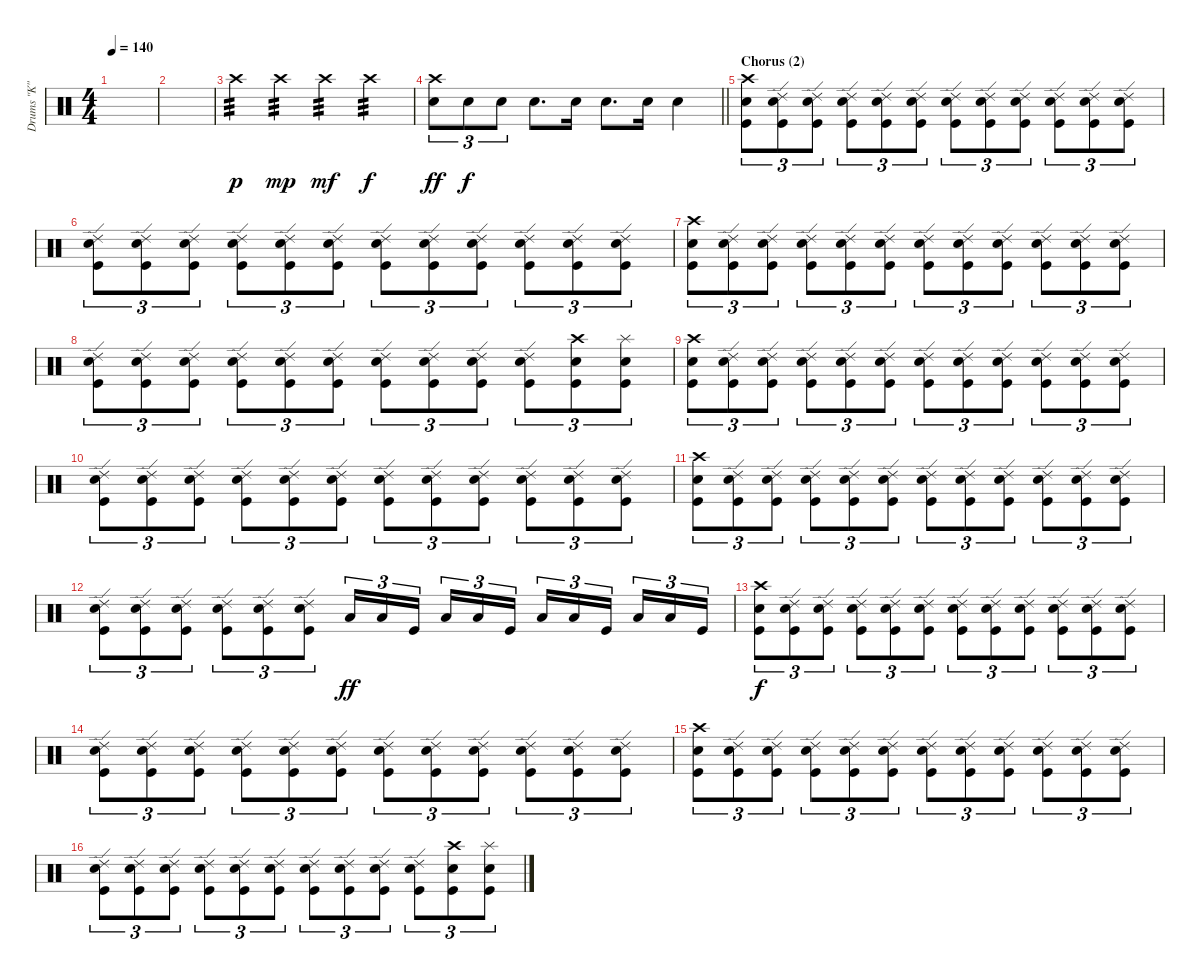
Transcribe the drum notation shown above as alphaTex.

\track ("Drums \"K\"" "Drums \"K\"") {instrument percussion}
\staff {score}
\articulation defaults
\ts (4 4)
\tempo 140
\clef neutral
\ks c
|
|
"Crash high (hit)".4{tp 3 dy p} "Crash high (hit)".4{tp 3 dy mp} "Crash high (hit)".4{tp 3 dy mf} "Crash high (hit)".4{tp 3 dy f} |
\barLineRight lightlight
("Crash high (hit)" "Snare (hit) 2").8{tu (3 2) dy ff} "Snare (hit) 2".8{tu (3 2) dy f} "Snare (hit) 2".8{tu (3 2)} "Snare (hit) 2".8{d} "Snare (hit) 2".16 "Snare (hit) 2".8{d} "Snare (hit) 2".16 "Snare (hit) 2".4 |
\section ("" "Chorus (2)")
("Crash high (hit)" "Snare (hit) 2" "Kick (hit)").8{tu (3 2)} ("Ride (edge) 2" "Snare (hit) 2" "Kick (hit)").8{tu (3 2)} ("Ride (edge) 2" "Snare (hit) 2" "Kick (hit)").8{tu (3 2)} ("Ride (edge) 2" "Snare (hit) 2" "Kick (hit)").8{tu (3 2)} ("Ride (edge) 2" "Snare (hit) 2" "Kick (hit)").8{tu (3 2)} ("Ride (edge) 2" "Snare (hit) 2" "Kick (hit)").8{tu (3 2)} ("Ride (edge) 2" "Snare (hit) 2" "Kick (hit)").8{tu (3 2)} ("Ride (edge) 2" "Snare (hit) 2" "Kick (hit)").8{tu (3 2)} ("Ride (edge) 2" "Snare (hit) 2" "Kick (hit)").8{tu (3 2)} ("Ride (edge) 2" "Snare (hit) 2" "Kick (hit)").8{tu (3 2)} ("Ride (edge) 2" "Snare (hit) 2" "Kick (hit)").8{tu (3 2)} ("Ride (edge) 2" "Snare (hit) 2" "Kick (hit)").8{tu (3 2)} |
("Ride (edge) 2" "Snare (hit) 2" "Kick (hit)").8{tu (3 2)} ("Ride (edge) 2" "Snare (hit) 2" "Kick (hit)").8{tu (3 2)} ("Ride (edge) 2" "Snare (hit) 2" "Kick (hit)").8{tu (3 2)} ("Ride (edge) 2" "Snare (hit) 2" "Kick (hit)").8{tu (3 2)} ("Ride (edge) 2" "Snare (hit) 2" "Kick (hit)").8{tu (3 2)} ("Ride (edge) 2" "Snare (hit) 2" "Kick (hit)").8{tu (3 2)} ("Ride (edge) 2" "Snare (hit) 2" "Kick (hit)").8{tu (3 2)} ("Ride (edge) 2" "Snare (hit) 2" "Kick (hit)").8{tu (3 2)} ("Ride (edge) 2" "Snare (hit) 2" "Kick (hit)").8{tu (3 2)} ("Ride (edge) 2" "Snare (hit) 2" "Kick (hit)").8{tu (3 2)} ("Ride (edge) 2" "Snare (hit) 2" "Kick (hit)").8{tu (3 2)} ("Ride (edge) 2" "Snare (hit) 2" "Kick (hit)").8{tu (3 2)} |
("Crash high (hit)" "Snare (hit) 2" "Kick (hit)").8{tu (3 2)} ("Ride (edge) 2" "Snare (hit) 2" "Kick (hit)").8{tu (3 2)} ("Ride (edge) 2" "Snare (hit) 2" "Kick (hit)").8{tu (3 2)} ("Ride (edge) 2" "Snare (hit) 2" "Kick (hit)").8{tu (3 2)} ("Ride (edge) 2" "Snare (hit) 2" "Kick (hit)").8{tu (3 2)} ("Ride (edge) 2" "Snare (hit) 2" "Kick (hit)").8{tu (3 2)} ("Ride (edge) 2" "Snare (hit) 2" "Kick (hit)").8{tu (3 2)} ("Ride (edge) 2" "Snare (hit) 2" "Kick (hit)").8{tu (3 2)} ("Ride (edge) 2" "Snare (hit) 2" "Kick (hit)").8{tu (3 2)} ("Ride (edge) 2" "Snare (hit) 2" "Kick (hit)").8{tu (3 2)} ("Ride (edge) 2" "Snare (hit) 2" "Kick (hit)").8{tu (3 2)} ("Ride (edge) 2" "Snare (hit) 2" "Kick (hit)").8{tu (3 2)} |
("Ride (edge) 2" "Snare (hit) 2" "Kick (hit)").8{tu (3 2)} ("Ride (edge) 2" "Snare (hit) 2" "Kick (hit)").8{tu (3 2)} ("Ride (edge) 2" "Snare (hit) 2" "Kick (hit)").8{tu (3 2)} ("Ride (edge) 2" "Snare (hit) 2" "Kick (hit)").8{tu (3 2)} ("Ride (edge) 2" "Snare (hit) 2" "Kick (hit)").8{tu (3 2)} ("Ride (edge) 2" "Snare (hit) 2" "Kick (hit)").8{tu (3 2)} ("Ride (edge) 2" "Snare (hit) 2" "Kick (hit)").8{tu (3 2)} ("Ride (edge) 2" "Snare (hit) 2" "Kick (hit)").8{tu (3 2)} ("Ride (edge) 2" "Snare (hit) 2" "Kick (hit)").8{tu (3 2)} ("Ride (edge) 2" "Snare (hit) 2" "Kick (hit)").8{tu (3 2)} ("Crash high (hit)" "Snare (hit) 2" "Kick (hit)").8{tu (3 2)} ("Splash (hit)" "Snare (hit) 2" "Kick (hit)").8{tu (3 2)} |
("Crash high (hit)" "Snare (hit) 2" "Kick (hit)").8{tu (3 2)} ("Ride (edge) 2" "Snare (hit) 2" "Kick (hit)").8{tu (3 2)} ("Ride (edge) 2" "Snare (hit) 2" "Kick (hit)").8{tu (3 2)} ("Ride (edge) 2" "Snare (hit) 2" "Kick (hit)").8{tu (3 2)} ("Ride (edge) 2" "Snare (hit) 2" "Kick (hit)").8{tu (3 2)} ("Ride (edge) 2" "Snare (hit) 2" "Kick (hit)").8{tu (3 2)} ("Ride (edge) 2" "Snare (hit) 2" "Kick (hit)").8{tu (3 2)} ("Ride (edge) 2" "Snare (hit) 2" "Kick (hit)").8{tu (3 2)} ("Ride (edge) 2" "Snare (hit) 2" "Kick (hit)").8{tu (3 2)} ("Ride (edge) 2" "Snare (hit) 2" "Kick (hit)").8{tu (3 2)} ("Ride (edge) 2" "Snare (hit) 2" "Kick (hit)").8{tu (3 2)} ("Ride (edge) 2" "Snare (hit) 2" "Kick (hit)").8{tu (3 2)} |
("Ride (edge) 2" "Snare (hit) 2" "Kick (hit)").8{tu (3 2)} ("Ride (edge) 2" "Snare (hit) 2" "Kick (hit)").8{tu (3 2)} ("Ride (edge) 2" "Snare (hit) 2" "Kick (hit)").8{tu (3 2)} ("Ride (edge) 2" "Snare (hit) 2" "Kick (hit)").8{tu (3 2)} ("Ride (edge) 2" "Snare (hit) 2" "Kick (hit)").8{tu (3 2)} ("Ride (edge) 2" "Snare (hit) 2" "Kick (hit)").8{tu (3 2)} ("Ride (edge) 2" "Snare (hit) 2" "Kick (hit)").8{tu (3 2)} ("Ride (edge) 2" "Snare (hit) 2" "Kick (hit)").8{tu (3 2)} ("Ride (edge) 2" "Snare (hit) 2" "Kick (hit)").8{tu (3 2)} ("Ride (edge) 2" "Snare (hit) 2" "Kick (hit)").8{tu (3 2)} ("Ride (edge) 2" "Snare (hit) 2" "Kick (hit)").8{tu (3 2)} ("Ride (edge) 2" "Snare (hit) 2" "Kick (hit)").8{tu (3 2)} |
("Crash high (hit)" "Snare (hit) 2" "Kick (hit)").8{tu (3 2)} ("Ride (edge) 2" "Snare (hit) 2" "Kick (hit)").8{tu (3 2)} ("Ride (edge) 2" "Snare (hit) 2" "Kick (hit)").8{tu (3 2)} ("Ride (edge) 2" "Snare (hit) 2" "Kick (hit)").8{tu (3 2)} ("Ride (edge) 2" "Snare (hit) 2" "Kick (hit)").8{tu (3 2)} ("Ride (edge) 2" "Snare (hit) 2" "Kick (hit)").8{tu (3 2)} ("Ride (edge) 2" "Snare (hit) 2" "Kick (hit)").8{tu (3 2)} ("Ride (edge) 2" "Snare (hit) 2" "Kick (hit)").8{tu (3 2)} ("Ride (edge) 2" "Snare (hit) 2" "Kick (hit)").8{tu (3 2)} ("Ride (edge) 2" "Snare (hit) 2" "Kick (hit)").8{tu (3 2)} ("Ride (edge) 2" "Snare (hit) 2" "Kick (hit)").8{tu (3 2)} ("Ride (edge) 2" "Snare (hit) 2" "Kick (hit)").8{tu (3 2)} |
("Ride (edge) 2" "Snare (hit) 2" "Kick (hit)").8{tu (3 2)} ("Ride (edge) 2" "Snare (hit) 2" "Kick (hit)").8{tu (3 2)} ("Ride (edge) 2" "Snare (hit) 2" "Kick (hit)").8{tu (3 2)} ("Ride (edge) 2" "Snare (hit) 2" "Kick (hit)").8{tu (3 2)} ("Ride (edge) 2" "Snare (hit) 2" "Kick (hit)").8{tu (3 2)} ("Ride (edge) 2" "Snare (hit) 2" "Kick (hit)").8{tu (3 2)} "Low Floor Tom (hit)".16{tu (3 2) dy ff} "Low Floor Tom (hit)".16{tu (3 2)} "Kick (hit)".16{tu (3 2) beam splitsecondary} "Low Floor Tom (hit)".16{tu (3 2)} "Low Floor Tom (hit)".16{tu (3 2)} "Kick (hit)".16{tu (3 2)} "Low Floor Tom (hit)".16{tu (3 2)} "Low Floor Tom (hit)".16{tu (3 2)} "Kick (hit)".16{tu (3 2) beam splitsecondary} "Low Floor Tom (hit)".16{tu (3 2)} "Low Floor Tom (hit)".16{tu (3 2)} "Kick (hit)".16{tu (3 2)} |
("Crash high (hit)" "Snare (hit) 2" "Kick (hit)").8{tu (3 2) dy f} ("Ride (edge) 2" "Snare (hit) 2" "Kick (hit)").8{tu (3 2)} ("Ride (edge) 2" "Snare (hit) 2" "Kick (hit)").8{tu (3 2)} ("Ride (edge) 2" "Snare (hit) 2" "Kick (hit)").8{tu (3 2)} ("Ride (edge) 2" "Snare (hit) 2" "Kick (hit)").8{tu (3 2)} ("Ride (edge) 2" "Snare (hit) 2" "Kick (hit)").8{tu (3 2)} ("Ride (edge) 2" "Snare (hit) 2" "Kick (hit)").8{tu (3 2)} ("Ride (edge) 2" "Snare (hit) 2" "Kick (hit)").8{tu (3 2)} ("Ride (edge) 2" "Snare (hit) 2" "Kick (hit)").8{tu (3 2)} ("Ride (edge) 2" "Snare (hit) 2" "Kick (hit)").8{tu (3 2)} ("Ride (edge) 2" "Snare (hit) 2" "Kick (hit)").8{tu (3 2)} ("Ride (edge) 2" "Snare (hit) 2" "Kick (hit)").8{tu (3 2)} |
("Ride (edge) 2" "Snare (hit) 2" "Kick (hit)").8{tu (3 2)} ("Ride (edge) 2" "Snare (hit) 2" "Kick (hit)").8{tu (3 2)} ("Ride (edge) 2" "Snare (hit) 2" "Kick (hit)").8{tu (3 2)} ("Ride (edge) 2" "Snare (hit) 2" "Kick (hit)").8{tu (3 2)} ("Ride (edge) 2" "Snare (hit) 2" "Kick (hit)").8{tu (3 2)} ("Ride (edge) 2" "Snare (hit) 2" "Kick (hit)").8{tu (3 2)} ("Ride (edge) 2" "Snare (hit) 2" "Kick (hit)").8{tu (3 2)} ("Ride (edge) 2" "Snare (hit) 2" "Kick (hit)").8{tu (3 2)} ("Ride (edge) 2" "Snare (hit) 2" "Kick (hit)").8{tu (3 2)} ("Ride (edge) 2" "Snare (hit) 2" "Kick (hit)").8{tu (3 2)} ("Ride (edge) 2" "Snare (hit) 2" "Kick (hit)").8{tu (3 2)} ("Ride (edge) 2" "Snare (hit) 2" "Kick (hit)").8{tu (3 2)} |
("Crash high (hit)" "Snare (hit) 2" "Kick (hit)").8{tu (3 2)} ("Ride (edge) 2" "Snare (hit) 2" "Kick (hit)").8{tu (3 2)} ("Ride (edge) 2" "Snare (hit) 2" "Kick (hit)").8{tu (3 2)} ("Ride (edge) 2" "Snare (hit) 2" "Kick (hit)").8{tu (3 2)} ("Ride (edge) 2" "Snare (hit) 2" "Kick (hit)").8{tu (3 2)} ("Ride (edge) 2" "Snare (hit) 2" "Kick (hit)").8{tu (3 2)} ("Ride (edge) 2" "Snare (hit) 2" "Kick (hit)").8{tu (3 2)} ("Ride (edge) 2" "Snare (hit) 2" "Kick (hit)").8{tu (3 2)} ("Ride (edge) 2" "Snare (hit) 2" "Kick (hit)").8{tu (3 2)} ("Ride (edge) 2" "Snare (hit) 2" "Kick (hit)").8{tu (3 2)} ("Ride (edge) 2" "Snare (hit) 2" "Kick (hit)").8{tu (3 2)} ("Ride (edge) 2" "Snare (hit) 2" "Kick (hit)").8{tu (3 2)} |
("Ride (edge) 2" "Snare (hit) 2" "Kick (hit)").8{tu (3 2)} ("Ride (edge) 2" "Snare (hit) 2" "Kick (hit)").8{tu (3 2)} ("Ride (edge) 2" "Snare (hit) 2" "Kick (hit)").8{tu (3 2)} ("Ride (edge) 2" "Snare (hit) 2" "Kick (hit)").8{tu (3 2)} ("Ride (edge) 2" "Snare (hit) 2" "Kick (hit)").8{tu (3 2)} ("Ride (edge) 2" "Snare (hit) 2" "Kick (hit)").8{tu (3 2)} ("Ride (edge) 2" "Snare (hit) 2" "Kick (hit)").8{tu (3 2)} ("Ride (edge) 2" "Snare (hit) 2" "Kick (hit)").8{tu (3 2)} ("Ride (edge) 2" "Snare (hit) 2" "Kick (hit)").8{tu (3 2)} ("Ride (edge) 2" "Snare (hit) 2" "Kick (hit)").8{tu (3 2)} ("Crash high (hit)" "Snare (hit) 2" "Kick (hit)").8{tu (3 2)} ("Splash (hit)" "Snare (hit) 2" "Kick (hit)").8{tu (3 2)}
